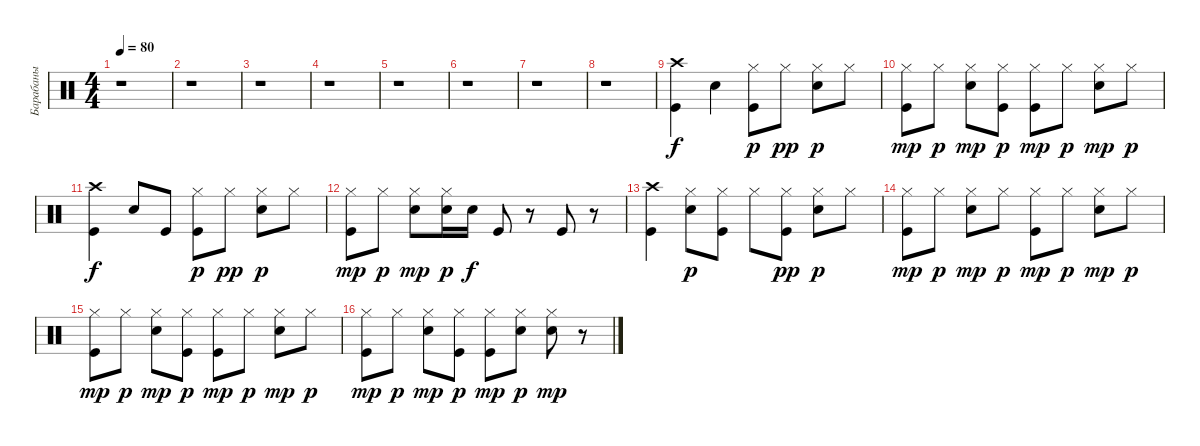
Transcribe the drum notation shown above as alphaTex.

\track ("Барабаны" "Барабаны") {instrument percussion}
\staff {score}
\articulation defaults
\ts (4 4)
\tempo 80
\clef neutral
\ks c
r.1{dy f} |
r.1 |
r.1 |
r.1 |
r.1 |
r.1 |
r.1 |
r.1 |
("Crash high (hit)" "Kick (hit)").4 "Snare (hit) 2".4 ("Kick (hit)" "Hi-Hat (closed)").8{dy p} "Hi-Hat (closed)".8{dy pp} ("Hi-Hat (closed)" "Snare (hit) 2").8{dy p} "Hi-Hat (closed)".8 |
("Kick (hit)" "Hi-Hat (closed)").8{dy mp} "Hi-Hat (closed)".8{dy p} ("Hi-Hat (closed)" "Snare (hit) 2").8{dy mp} ("Kick (hit)" "Hi-Hat (closed)").8{dy p} ("Hi-Hat (closed)" "Kick (hit)").8{dy mp} "Hi-Hat (closed)".8{dy p} ("Snare (hit) 2" "Hi-Hat (closed)").8{dy mp} "Hi-Hat (closed)".8{dy p} |
("Kick (hit)" "Crash high (hit)").4{dy f} "Snare (hit) 2".8 "Kick (hit)".8 ("Kick (hit)" "Hi-Hat (closed)").8{dy p} "Hi-Hat (closed)".8{dy pp} ("Hi-Hat (closed)" "Snare (hit) 2").8{dy p} "Hi-Hat (closed)".8 |
("Kick (hit)" "Hi-Hat (closed)").8{dy mp} "Hi-Hat (closed)".8{dy p} ("Snare (hit) 2" "Hi-Hat (closed)").8{dy mp} ("Snare (hit) 2" "Hi-Hat (closed)").16{dy p} "Snare (hit) 2".16{dy f} "Kick (hit)".8 r.8 "Kick (hit)".8 r.8 |
("Kick (hit)" "Crash high (hit)").4 ("Snare (hit) 2" "Hi-Hat (closed)").8{dy p} ("Kick (hit)" "Hi-Hat (closed)").8 "Hi-Hat (closed)".8 ("Kick (hit)" "Hi-Hat (closed)").8{dy pp} ("Snare (hit) 2" "Hi-Hat (closed)").8{dy p} "Hi-Hat (closed)".8 |
("Kick (hit)" "Hi-Hat (closed)").8{dy mp} "Hi-Hat (closed)".8{dy p} ("Snare (hit) 2" "Hi-Hat (closed)").8{dy mp} "Hi-Hat (closed)".8{dy p} ("Kick (hit)" "Hi-Hat (closed)").8{dy mp} "Hi-Hat (closed)".8{dy p} ("Snare (hit) 2" "Hi-Hat (closed)").8{dy mp} "Hi-Hat (closed)".8{dy p} |
("Kick (hit)" "Hi-Hat (closed)").8{dy mp} "Hi-Hat (closed)".8{dy p} ("Snare (hit) 2" "Hi-Hat (closed)").8{dy mp} ("Kick (hit)" "Hi-Hat (closed)").8{dy p} ("Kick (hit)" "Hi-Hat (closed)").8{dy mp} "Hi-Hat (closed)".8{dy p} ("Snare (hit) 2" "Hi-Hat (closed)").8{dy mp} "Hi-Hat (closed)".8{dy p} |
("Kick (hit)" "Hi-Hat (closed)").8{dy mp} "Hi-Hat (closed)".8{dy p} ("Snare (hit) 2" "Hi-Hat (closed)").8{dy mp} ("Kick (hit)" "Hi-Hat (closed)").8{dy p} ("Kick (hit)" "Hi-Hat (closed)").8{dy mp} ("Snare (hit) 2" "Hi-Hat (closed)").8{dy p} ("Snare (hit) 2" "Hi-Hat (closed)").8{dy mp} r.8
